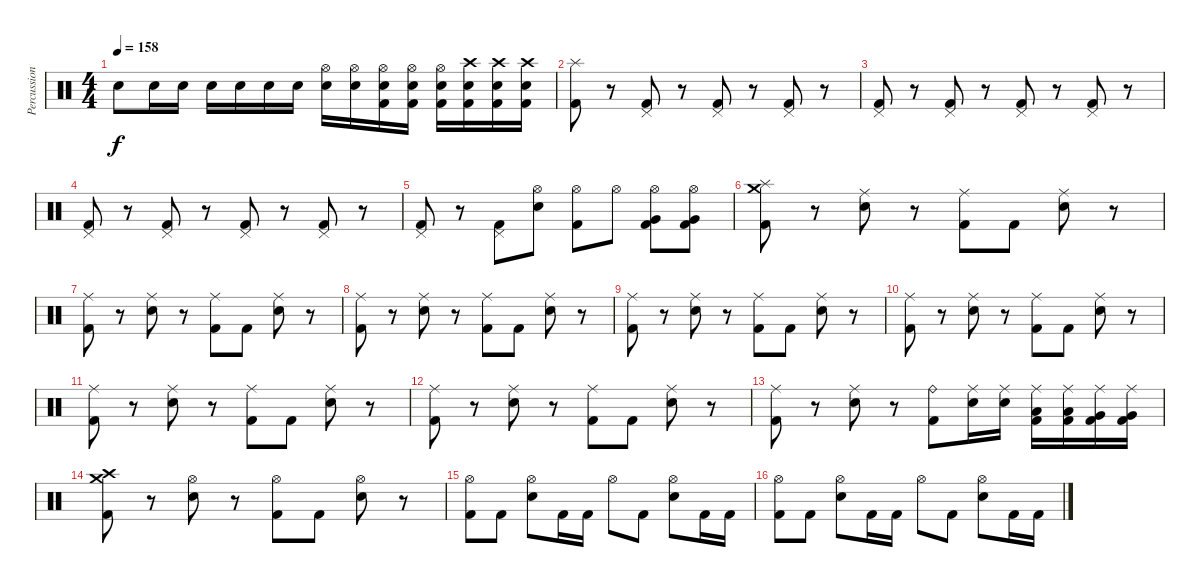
\track ("Percussion" "Percussion") {instrument percussion}
\staff {score}
\articulation defaults
\ts (4 4)
\tempo 158
\clef neutral
\ks c "Snare (hit) 2".8{dy f} "Snare (hit) 2".16 "Snare (hit) 2".16 "Snare (hit) 2".16 "Snare (hit) 2".16 "Snare (hit) 2".16 "Snare (hit) 2".16
("Hi-Hat (open)" "Snare (hit) 2").16 ("Hi-Hat (open)" "Snare (hit) 2").16 ("Hi-Hat (open)" "Snare (hit) 2" "Kick (hit) 2").16 ("Hi-Hat (open)" "Snare (hit) 2" "Kick (hit) 2").16 ("Hi-Hat (open)" "Snare (hit) 2" "Kick (hit) 2").16 ("Crash high (hit)" "Snare (hit) 2" "Kick (hit) 2").16 ("Crash high (hit)" "Snare (hit) 2" "Kick (hit) 2").16 ("Crash high (hit)" "Snare (hit) 2" "Kick (hit) 2").16 |
("Splash (hit)" "Kick (hit) 2").8 r.8 ("Pedal Hi-Hat (hit)" "Kick (hit) 2").8 r.8 ("Pedal Hi-Hat (hit)" "Kick (hit) 2").8 r.8 ("Pedal Hi-Hat (hit)" "Kick (hit) 2").8 r.8 |
("Pedal Hi-Hat (hit)" "Kick (hit) 2").8 r.8 ("Pedal Hi-Hat (hit)" "Kick (hit) 2").8 r.8 ("Pedal Hi-Hat (hit)" "Kick (hit) 2").8 r.8 ("Pedal Hi-Hat (hit)" "Kick (hit) 2").8 r.8 |
("Pedal Hi-Hat (hit)" "Kick (hit) 2").8 r.8 ("Pedal Hi-Hat (hit)" "Kick (hit) 2").8 r.8 ("Pedal Hi-Hat (hit)" "Kick (hit) 2").8 r.8 ("Pedal Hi-Hat (hit)" "Kick (hit) 2").8 r.8 |
("Pedal Hi-Hat (hit)" "Kick (hit) 2").8 r.8 ("Pedal Hi-Hat (hit)" "Kick (hit) 2").8 ("Hi-Hat (open)" "Snare (hit) 2").8 ("Hi-Hat (open)" "Kick (hit) 2").8 "Hi-Hat (open)".8 ("Hi-Hat (open)" "Very Low Tom (hit)" "Kick (hit) 2").8 ("Hi-Hat (open)" "Very Low Tom (hit)" "Kick (hit) 2").8 |
("Crash medium (hit)" "Splash (hit)" "Kick (hit) 2").8 r.8 ("Ride (middle)" "Snare (hit) 2").8 r.8 ("Ride (middle)" "Kick (hit) 2").8 "Kick (hit) 2".8 ("Ride (middle)" "Snare (hit) 2").8 r.8 |
("Ride (middle)" "Kick (hit) 2").8 r.8 ("Ride (middle)" "Snare (hit) 2").8 r.8 ("Ride (middle)" "Kick (hit) 2").8 "Kick (hit) 2".8 ("Ride (middle)" "Snare (hit) 2").8 r.8 |
("Ride (middle)" "Kick (hit) 2").8 r.8 ("Ride (middle)" "Snare (hit) 2").8 r.8 ("Ride (middle)" "Kick (hit) 2").8 "Kick (hit) 2".8 ("Ride (middle)" "Snare (hit) 2").8 r.8 |
("Ride (middle)" "Kick (hit) 2").8 r.8 ("Ride (middle)" "Snare (hit) 2").8 r.8 ("Ride (middle)" "Kick (hit) 2").8 "Kick (hit) 2".8 ("Ride (middle)" "Snare (hit) 2").8 r.8 |
("Ride (middle)" "Kick (hit) 2").8 r.8 ("Ride (middle)" "Snare (hit) 2").8 r.8 ("Ride (middle)" "Kick (hit) 2").8 "Kick (hit) 2".8 ("Ride (middle)" "Snare (hit) 2").8 r.8 |
("Ride (middle)" "Kick (hit) 2").8 r.8 ("Ride (middle)" "Snare (hit) 2").8 r.8 ("Ride (middle)" "Kick (hit) 2").8 "Kick (hit) 2".8 ("Ride (middle)" "Snare (hit) 2").8 r.8 |
("Ride (middle)" "Kick (hit) 2").8 r.8 ("Ride (middle)" "Snare (hit) 2").8 r.8 ("Ride (middle)" "Kick (hit) 2").8 "Kick (hit) 2".8 ("Ride (middle)" "Snare (hit) 2").8 r.8 |
("Ride (middle)" "Kick (hit) 2").8 r.8 ("Ride (middle)" "Snare (hit) 2").8 r.8 ("Ride (bell)" "Kick (hit) 2").8 ("Ride (middle)" "Snare (hit) 2").16 ("Ride (middle)" "Snare (hit) 2").16 ("Ride (middle)" "Low Tom (hit)" "Kick (hit) 2").16 ("Ride (middle)" "Low Tom (hit)" "Kick (hit) 2").16 ("Ride (middle)" "Very Low Tom (hit)" "Kick (hit) 2").16 ("Ride (middle)" "Very Low Tom (hit)" "Kick (hit) 2").16 |
("Crash high (hit)" "Crash medium (hit)" "Kick (hit) 2").8 r.8 ("Hi-Hat (open)" "Snare (hit) 2").8 r.8 ("Hi-Hat (open)" "Kick (hit) 2").8 "Kick (hit) 2".8 ("Hi-Hat (open)" "Snare (hit) 2").8 r.8 |
("Hi-Hat (open)" "Kick (hit) 2").8 "Kick (hit) 2".8 ("Hi-Hat (open)" "Snare (hit) 2").8 "Kick (hit) 2".16 "Kick (hit) 2".16 "Hi-Hat (open)".8 "Kick (hit) 2".8 ("Hi-Hat (open)" "Snare (hit) 2").8 "Kick (hit) 2".16 "Kick (hit) 2".16 |
("Hi-Hat (open)" "Kick (hit) 2").8 "Kick (hit) 2".8 ("Hi-Hat (open)" "Snare (hit) 2").8 "Kick (hit) 2".16 "Kick (hit) 2".16 "Hi-Hat (open)".8 "Kick (hit) 2".8 ("Hi-Hat (open)" "Snare (hit) 2").8 "Kick (hit) 2".16 "Kick (hit) 2".16
